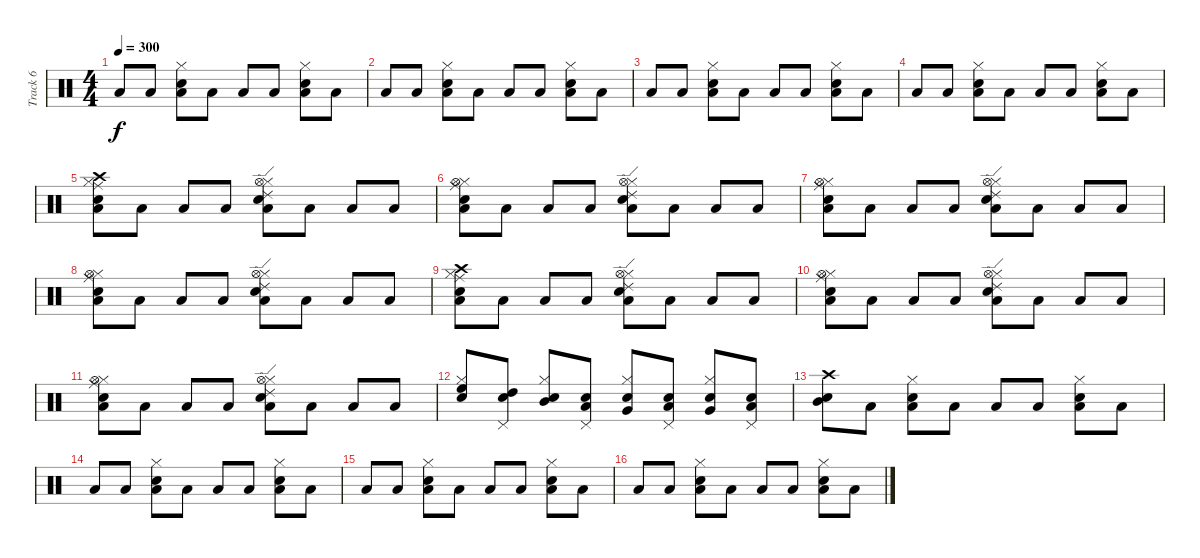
\track ("Track 6" "Track 6") {instrument percussion}
\staff {score}
\articulation defaults
\ts (4 4)
\tempo 300
\clef neutral
\ks c "Low Floor Tom (hit)".8{dy f} "Low Floor Tom (hit)".8
("Electric Snare (hit)" "Low Tom (hit)" "Hi-Hat (closed)").8 "Low Floor Tom (hit)".8 "Low Floor Tom (hit)".8 "Low Floor Tom (hit)".8 ("Electric Snare (hit)" "Low Tom (hit)" "Hi-Hat (closed)").8 "Low Floor Tom (hit)".8 |
"Low Floor Tom (hit)".8 "Low Floor Tom (hit)".8 ("Electric Snare (hit)" "Low Tom (hit)" "Hi-Hat (closed)").8 "Low Floor Tom (hit)".8 "Low Floor Tom (hit)".8 "Low Floor Tom (hit)".8 ("Electric Snare (hit)" "Low Tom (hit)" "Hi-Hat (closed)").8 "Low Floor Tom (hit)".8 |
"Low Floor Tom (hit)".8 "Low Floor Tom (hit)".8 ("Electric Snare (hit)" "Low Tom (hit)" "Hi-Hat (closed)").8 "Low Floor Tom (hit)".8 "Low Floor Tom (hit)".8 "Low Floor Tom (hit)".8 ("Electric Snare (hit)" "Low Tom (hit)" "Hi-Hat (closed)").8 "Low Floor Tom (hit)".8 |
"Low Floor Tom (hit)".8 "Low Floor Tom (hit)".8 ("Electric Snare (hit)" "Low Tom (hit)" "Hi-Hat (closed)").8 "Low Floor Tom (hit)".8 "Low Floor Tom (hit)".8 "Low Floor Tom (hit)".8 ("Electric Snare (hit)" "Low Tom (hit)" "Hi-Hat (closed)").8 "Low Floor Tom (hit)".8 |
("Snare (hit) 2" "Low Tom (hit)" "Hi-Hat (closed)" "Crash high (hit)" "Ride (middle)").8 "Low Floor Tom (hit)".8 "Low Floor Tom (hit)".8 "Low Floor Tom (hit)".8 ("Electric Snare (hit)" "Low Tom (hit)" "Hi-Hat (closed)" "Hi-Hat (open)" "Ride (edge) 2").8 "Low Floor Tom (hit)".8 "Low Floor Tom (hit)".8 "Low Floor Tom (hit)".8 |
("Snare (hit) 2" "Low Tom (hit)" "Hi-Hat (closed)" "Hi-Hat (open)" "Ride (middle)").8 "Low Floor Tom (hit)".8 "Low Floor Tom (hit)".8 "Low Floor Tom (hit)".8 ("Electric Snare (hit)" "Low Tom (hit)" "Hi-Hat (closed)" "Hi-Hat (open)" "Ride (edge) 2").8 "Low Floor Tom (hit)".8 "Low Floor Tom (hit)".8 "Low Floor Tom (hit)".8 |
("Snare (hit) 2" "Low Tom (hit)" "Hi-Hat (closed)" "Hi-Hat (open)" "Ride (middle)").8 "Low Floor Tom (hit)".8 "Low Floor Tom (hit)".8 "Low Floor Tom (hit)".8 ("Electric Snare (hit)" "Low Tom (hit)" "Hi-Hat (closed)" "Hi-Hat (open)" "Ride (edge) 2").8 "Low Floor Tom (hit)".8 "Low Floor Tom (hit)".8 "Low Floor Tom (hit)".8 |
("Snare (hit) 2" "Low Tom (hit)" "Hi-Hat (closed)" "Hi-Hat (open)" "Ride (middle)").8 "Low Floor Tom (hit)".8 "Low Floor Tom (hit)".8 "Low Floor Tom (hit)".8 ("Electric Snare (hit)" "Low Tom (hit)" "Hi-Hat (closed)" "Hi-Hat (open)" "Ride (edge) 2").8 "Low Floor Tom (hit)".8 "Low Floor Tom (hit)".8 "Low Floor Tom (hit)".8 |
("Snare (hit) 2" "Low Tom (hit)" "Hi-Hat (closed)" "Crash high (hit)" "Ride (middle)").8 "Low Floor Tom (hit)".8 "Low Floor Tom (hit)".8 "Low Floor Tom (hit)".8 ("Electric Snare (hit)" "Low Tom (hit)" "Hi-Hat (closed)" "Hi-Hat (open)" "Ride (edge) 2").8 "Low Floor Tom (hit)".8 "Low Floor Tom (hit)".8 "Low Floor Tom (hit)".8 |
("Snare (hit) 2" "Low Tom (hit)" "Hi-Hat (closed)" "Hi-Hat (open)" "Ride (middle)").8 "Low Floor Tom (hit)".8 "Low Floor Tom (hit)".8 "Low Floor Tom (hit)".8 ("Electric Snare (hit)" "Low Tom (hit)" "Hi-Hat (closed)" "Hi-Hat (open)" "Ride (edge) 2").8 "Low Floor Tom (hit)".8 "Low Floor Tom (hit)".8 "Low Floor Tom (hit)".8 |
("Snare (hit) 2" "Low Tom (hit)" "Hi-Hat (closed)" "Hi-Hat (open)" "Ride (middle)").8 "Low Floor Tom (hit)".8 "Low Floor Tom (hit)".8 "Low Floor Tom (hit)".8 ("Electric Snare (hit)" "Low Tom (hit)" "Hi-Hat (closed)" "Hi-Hat (open)" "Ride (edge) 2").8 "Low Floor Tom (hit)".8 "Low Floor Tom (hit)".8 "Low Floor Tom (hit)".8 |
("High Floor Tom (hit)" "Electric Snare (hit)" "Hi-Hat (closed)").8 ("High Tom (hit)" "Electric Snare (hit)" "Pedal Hi-Hat (hit)").8 ("Mid Tom (hit)" "Electric Snare (hit)" "Hi-Hat (closed)").8 ("Low Tom (hit)" "Electric Snare (hit)" "Pedal Hi-Hat (hit)").8 ("Very Low Tom (hit)" "Electric Snare (hit)" "Hi-Hat (closed)").8 ("Low Floor Tom (hit)" "Electric Snare (hit)" "Pedal Hi-Hat (hit)").8 ("Very Low Tom (hit)" "Electric Snare (hit)" "Hi-Hat (closed)").8 ("Low Tom (hit)" "Electric Snare (hit)" "Pedal Hi-Hat (hit)").8 |
("Snare (hit) 2" "Mid Tom (hit)" "Crash high (hit)").8 "Low Floor Tom (hit)".8 ("Electric Snare (hit)" "Low Tom (hit)" "Hi-Hat (closed)").8 "Low Floor Tom (hit)".8 "Low Floor Tom (hit)".8 "Low Floor Tom (hit)".8 ("Electric Snare (hit)" "Low Tom (hit)" "Hi-Hat (closed)").8 "Low Floor Tom (hit)".8 |
"Low Floor Tom (hit)".8 "Low Floor Tom (hit)".8 ("Electric Snare (hit)" "Low Tom (hit)" "Hi-Hat (closed)").8 "Low Floor Tom (hit)".8 "Low Floor Tom (hit)".8 "Low Floor Tom (hit)".8 ("Electric Snare (hit)" "Low Tom (hit)" "Hi-Hat (closed)").8 "Low Floor Tom (hit)".8 |
"Low Floor Tom (hit)".8 "Low Floor Tom (hit)".8 ("Electric Snare (hit)" "Low Tom (hit)" "Hi-Hat (closed)").8 "Low Floor Tom (hit)".8 "Low Floor Tom (hit)".8 "Low Floor Tom (hit)".8 ("Electric Snare (hit)" "Low Tom (hit)" "Hi-Hat (closed)").8 "Low Floor Tom (hit)".8 |
"Low Floor Tom (hit)".8 "Low Floor Tom (hit)".8 ("Electric Snare (hit)" "Low Tom (hit)" "Hi-Hat (closed)").8 "Low Floor Tom (hit)".8 "Low Floor Tom (hit)".8 "Low Floor Tom (hit)".8 ("Electric Snare (hit)" "Low Tom (hit)" "Hi-Hat (closed)").8 "Low Floor Tom (hit)".8
